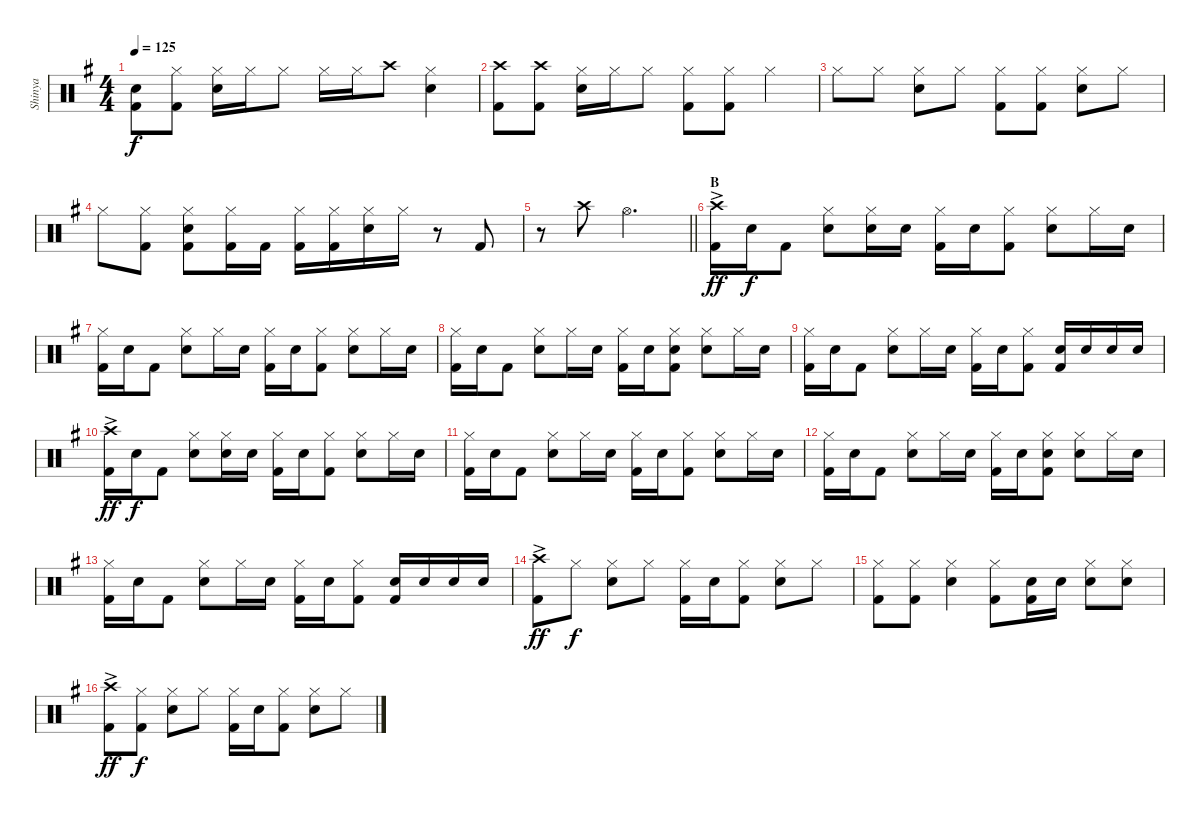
\track ("Shinya" "Shinya") {instrument percussion}
\staff {score}
\articulation defaults
\ts (4 4)
\tempo 125
\clef neutral
\ks g
("Snare (hit)"{t} "Kick (hit) 2").8{dy f} ("Hi-Hat (closed)" "Kick (hit) 2").8 ("Hi-Hat (closed)" "Snare (hit) 2").16 "Hi-Hat (closed)".16 "Hi-Hat (closed)".8 "Hi-Hat (closed)".16 "Hi-Hat (closed)".16 "Crash high (hit)".8 ("Hi-Hat (closed)" "Snare (hit) 2").4 |
("Crash high (hit)" "Kick (hit) 2").8 ("Crash high (hit)" "Kick (hit) 2").8 ("Hi-Hat (closed)" "Snare (hit) 2").16 "Hi-Hat (closed)".16 "Hi-Hat (closed)".8 ("Hi-Hat (closed)" "Kick (hit) 2").8 ("Hi-Hat (closed)" "Kick (hit) 2").8 "Hi-Hat (closed)".4 |
"Hi-Hat (closed)".8 "Hi-Hat (closed)".8 ("Hi-Hat (closed)" "Snare (hit) 2").8 "Hi-Hat (closed)".8 ("Hi-Hat (closed)" "Kick (hit) 2").8 ("Hi-Hat (closed)" "Kick (hit) 2").8 ("Hi-Hat (closed)" "Snare (hit) 2").8 "Hi-Hat (closed)".8 |
"Hi-Hat (closed)".8 ("Hi-Hat (closed)" "Kick (hit) 2").8 ("Hi-Hat (closed)" "Snare (hit) 2" "Kick (hit) 2").8 ("Hi-Hat (closed)" "Kick (hit) 2").16 "Kick (hit) 2".16 ("Hi-Hat (closed)" "Kick (hit) 2").16 ("Hi-Hat (closed)" "Kick (hit) 2").16 ("Hi-Hat (closed)" "Snare (hit) 2").16 "Hi-Hat (closed)".16 r.8 "Kick (hit) 2".8 |
\barLineRight lightlight
r.8 "Crash high (hit)".8 "Hi-Hat (open)".2{d} |
\section ("" "B")
("Crash high (hit)"{ac} "Kick (hit) 2").16{dy ff} "Snare (hit) 2".16{dy f} "Kick (hit) 2".8 ("Hi-Hat (closed)" "Snare (hit) 2").8 ("Hi-Hat (closed)" "Snare (hit) 2").16 "Snare (hit) 2".16 ("Hi-Hat (closed)" "Kick (hit) 2").16 "Snare (hit) 2".16 ("Hi-Hat (closed)" "Kick (hit) 2").8 ("Hi-Hat (closed)" "Snare (hit) 2").8 "Hi-Hat (closed)".16 "Snare (hit) 2".16 |
("Hi-Hat (closed)" "Kick (hit) 2").16 "Snare (hit) 2".16 "Kick (hit) 2".8 ("Hi-Hat (closed)" "Snare (hit) 2").8 "Hi-Hat (closed)".16 "Snare (hit) 2".16 ("Hi-Hat (closed)" "Kick (hit) 2").16 "Snare (hit) 2".16 ("Hi-Hat (closed)" "Kick (hit) 2").8 ("Hi-Hat (closed)" "Snare (hit) 2").8 "Hi-Hat (closed)".16 "Snare (hit) 2".16 |
("Hi-Hat (closed)" "Kick (hit) 2").16 "Snare (hit) 2".16 "Kick (hit) 2".8 ("Hi-Hat (closed)" "Snare (hit) 2").8 "Hi-Hat (closed)".16 "Snare (hit) 2".16 ("Hi-Hat (closed)" "Kick (hit) 2").16 "Snare (hit) 2".16 ("Hi-Hat (closed)" "Snare (hit) 2" "Kick (hit) 2").8 ("Hi-Hat (closed)" "Snare (hit) 2").8 "Hi-Hat (closed)".16 "Snare (hit) 2".16 |
("Hi-Hat (closed)" "Kick (hit) 2").16 "Snare (hit) 2".16 "Kick (hit) 2".8 ("Hi-Hat (closed)" "Snare (hit) 2").8 "Hi-Hat (closed)".16 "Snare (hit) 2".16 ("Hi-Hat (closed)" "Kick (hit) 2").16 "Snare (hit) 2".16 ("Hi-Hat (closed)" "Kick (hit) 2").8 ("Snare (hit) 2" "Kick (hit) 2").16 "Snare (hit) 2".16 "Snare (hit) 2".16 "Snare (hit) 2".16 |
("Crash high (hit)"{ac} "Kick (hit) 2").16{dy ff} "Snare (hit) 2".16{dy f} "Kick (hit) 2".8 ("Hi-Hat (closed)" "Snare (hit) 2").8 ("Hi-Hat (closed)" "Snare (hit) 2").16 "Snare (hit) 2".16 ("Hi-Hat (closed)" "Kick (hit) 2").16 "Snare (hit) 2".16 ("Hi-Hat (closed)" "Kick (hit) 2").8 ("Hi-Hat (closed)" "Snare (hit) 2").8 "Hi-Hat (closed)".16 "Snare (hit) 2".16 |
("Hi-Hat (closed)" "Kick (hit) 2").16 "Snare (hit) 2".16 "Kick (hit) 2".8 ("Hi-Hat (closed)" "Snare (hit) 2").8 "Hi-Hat (closed)".16 "Snare (hit) 2".16 ("Hi-Hat (closed)" "Kick (hit) 2").16 "Snare (hit) 2".16 ("Hi-Hat (closed)" "Kick (hit) 2").8 ("Hi-Hat (closed)" "Snare (hit) 2").8 "Hi-Hat (closed)".16 "Snare (hit) 2".16 |
("Hi-Hat (closed)" "Kick (hit) 2").16 "Snare (hit) 2".16 "Kick (hit) 2".8 ("Hi-Hat (closed)" "Snare (hit) 2").8 "Hi-Hat (closed)".16 "Snare (hit) 2".16 ("Hi-Hat (closed)" "Kick (hit) 2").16 "Snare (hit) 2".16 ("Hi-Hat (closed)" "Snare (hit) 2" "Kick (hit) 2").8 ("Hi-Hat (closed)" "Snare (hit) 2").8 "Hi-Hat (closed)".16 "Snare (hit) 2".16 |
("Hi-Hat (closed)" "Kick (hit) 2").16 "Snare (hit) 2".16 "Kick (hit) 2".8 ("Hi-Hat (closed)" "Snare (hit) 2").8 "Hi-Hat (closed)".16 "Snare (hit) 2".16 ("Hi-Hat (closed)" "Kick (hit) 2").16 "Snare (hit) 2".16 ("Hi-Hat (closed)" "Kick (hit) 2").8 ("Snare (hit) 2" "Kick (hit) 2").16 "Snare (hit) 2".16 "Snare (hit) 2".16 "Snare (hit) 2".16 |
("Crash high (hit)"{ac} "Kick (hit) 2").8{dy ff} "Hi-Hat (closed)".8{dy f} ("Hi-Hat (closed)" "Snare (hit) 2").8 "Hi-Hat (closed)".8 ("Hi-Hat (closed)" "Kick (hit) 2").16 "Snare (hit) 2".16 ("Hi-Hat (closed)" "Kick (hit) 2").8 ("Hi-Hat (closed)" "Snare (hit) 2").8 "Hi-Hat (closed)".8 |
("Hi-Hat (closed)" "Kick (hit) 2").8 ("Hi-Hat (closed)" "Kick (hit) 2").8 ("Hi-Hat (closed)" "Snare (hit) 2").4 ("Hi-Hat (closed)" "Kick (hit) 2").8 ("Snare (hit) 2" "Kick (hit) 2").16 "Snare (hit) 2".16 ("Hi-Hat (closed)" "Snare (hit) 2").8 ("Hi-Hat (closed)" "Snare (hit) 2").8 |
("Crash high (hit)"{ac} "Kick (hit) 2").8{dy ff} ("Hi-Hat (closed)" "Kick (hit) 2").8{dy f} ("Hi-Hat (closed)" "Snare (hit) 2").8 "Hi-Hat (closed)".8 ("Hi-Hat (closed)" "Kick (hit) 2").16 "Snare (hit) 2".16 ("Hi-Hat (closed)" "Kick (hit) 2").8 ("Hi-Hat (closed)" "Snare (hit) 2").8 "Hi-Hat (closed)".8
